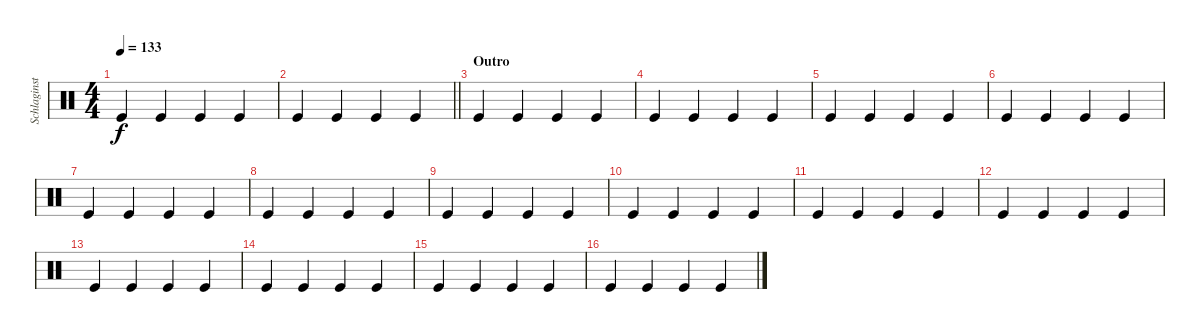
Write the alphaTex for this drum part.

\track ("Schlaginstrumente - Auswahl" "Schlaginst") {instrument percussion}
\staff {score}
\articulation defaults
\ts (4 4)
\tempo 133
\clef neutral
\ks c "Kick (hit)".4{dy f} "Kick (hit)".4 "Kick (hit)".4 "Kick (hit)".4
|
\barLineRight lightlight "Kick (hit)".4 "Kick (hit)".4 "Kick (hit)".4 "Kick (hit)".4
|
\section ("" "Outro")
"Kick (hit)".4 "Kick (hit)".4 "Kick (hit)".4 "Kick (hit)".4 |
"Kick (hit)".4 "Kick (hit)".4 "Kick (hit)".4 "Kick (hit)".4 |
"Kick (hit)".4 "Kick (hit)".4 "Kick (hit)".4 "Kick (hit)".4 |
"Kick (hit)".4 "Kick (hit)".4 "Kick (hit)".4 "Kick (hit)".4 |
"Kick (hit)".4 "Kick (hit)".4 "Kick (hit)".4 "Kick (hit)".4 |
"Kick (hit)".4 "Kick (hit)".4 "Kick (hit)".4 "Kick (hit)".4 |
"Kick (hit)".4 "Kick (hit)".4 "Kick (hit)".4 "Kick (hit)".4 |
"Kick (hit)".4 "Kick (hit)".4 "Kick (hit)".4 "Kick (hit)".4 |
"Kick (hit)".4 "Kick (hit)".4 "Kick (hit)".4 "Kick (hit)".4 |
"Kick (hit)".4 "Kick (hit)".4 "Kick (hit)".4 "Kick (hit)".4 |
"Kick (hit)".4 "Kick (hit)".4 "Kick (hit)".4 "Kick (hit)".4 |
"Kick (hit)".4 "Kick (hit)".4 "Kick (hit)".4 "Kick (hit)".4 |
"Kick (hit)".4 "Kick (hit)".4 "Kick (hit)".4 "Kick (hit)".4 |
"Kick (hit)".4 "Kick (hit)".4 "Kick (hit)".4 "Kick (hit)".4
